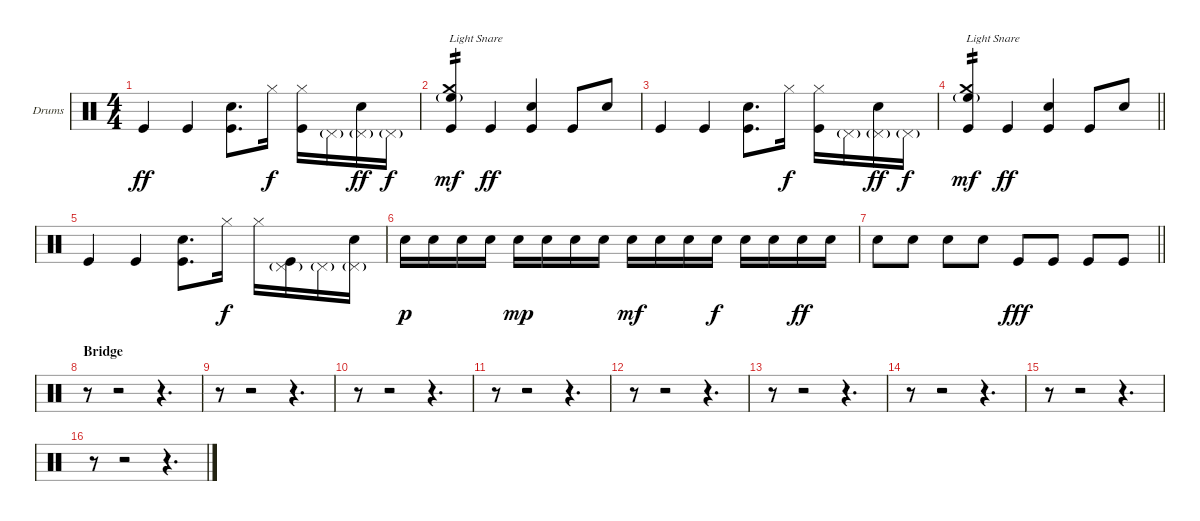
\bracketExtendMode groupsimilarinstruments
\firstSystemTrackNameOrientation horizontal
\otherSystemsTrackNameOrientation horizontal
\track ("Percussion" "Drums") {instrument percussion}
\staff {score}
\articulation defaults
\ts (4 4)
\tempo (150 hide)
\clef neutral
\ks c "Kick (hit)".4{dy ff} "Kick (hit)".4
("Snare (hit) 2" "Kick (hit)").8{d} "Hi-Hat (closed)".16{dy f} ("Hi-Hat (closed)" "Kick (hit)").16 "Pedal Hi-Hat (hit)"{g}.16 ("Pedal Hi-Hat (hit)"{g} "Snare (hit) 2").16{dy ff} "Pedal Hi-Hat (hit)"{g}.16{dy f} |
("Crash medium (hit)" "High Floor Tom (hit)"{g} "Kick (hit)").4{txt "Light Snare" tp 2 dy mf} "Kick (hit)".4{dy ff} ("Snare (hit) 2" "Kick (hit)").4 "Kick (hit)".8 "Snare (hit) 2".8 |
"Kick (hit)".4 "Kick (hit)".4 ("Snare (hit) 2" "Kick (hit)").8{d} "Hi-Hat (closed)".16{dy f} ("Hi-Hat (closed)" "Kick (hit)").16 "Pedal Hi-Hat (hit)"{g}.16 ("Pedal Hi-Hat (hit)"{g} "Snare (hit) 2").16{dy ff} "Pedal Hi-Hat (hit)"{g}.16{dy f} |
\barLineRight lightlight
("Crash medium (hit)" "High Floor Tom (hit)"{g} "Kick (hit)").4{txt "Light Snare" tp 2 dy mf} "Kick (hit)".4{dy ff} ("Snare (hit) 2" "Kick (hit)").4 "Kick (hit)".8 "Snare (hit) 2".8 |
"Kick (hit)".4 "Kick (hit)".4 ("Snare (hit) 2" "Kick (hit)").8{d} "Hi-Hat (closed)".16{dy f} "Hi-Hat (closed)".16 ("Pedal Hi-Hat (hit)"{g} "Kick (hit)").16 "Pedal Hi-Hat (hit)"{g}.16 ("Pedal Hi-Hat (hit)"{g} "Snare (hit) 2").16 |
"Snare (hit) 2".16{dy p} "Snare (hit) 2".16 "Snare (hit) 2".16 "Snare (hit) 2".16 "Snare (hit) 2".16{dy mp} "Snare (hit) 2".16 "Snare (hit) 2".16 "Snare (hit) 2".16 "Snare (hit) 2".16{dy mf} "Snare (hit) 2".16 "Snare (hit) 2".16 "Snare (hit) 2".16{dy f} "Snare (hit) 2".16 "Snare (hit) 2".16 "Snare (hit) 2".16{dy ff} "Snare (hit) 2".16 |
\barLineRight lightlight "Snare (hit) 2".8 "Snare (hit) 2".8 "Snare (hit) 2".8 "Snare (hit) 2".8 "Kick (hit)".8{dy fff} "Kick (hit)".8 "Kick (hit)".8 "Kick (hit)".8
|
\section ("" "Bridge")
\tempo (142 hide)
r.8 r.2 r.4{d} |
r.8 r.2 r.4{d} |
r.8 r.2 r.4{d} |
r.8 r.2 r.4{d} |
r.8 r.2 r.4{d} |
r.8 r.2 r.4{d} |
r.8 r.2 r.4{d} |
r.8 r.2 r.4{d} |
r.8 r.2 r.4{d}
